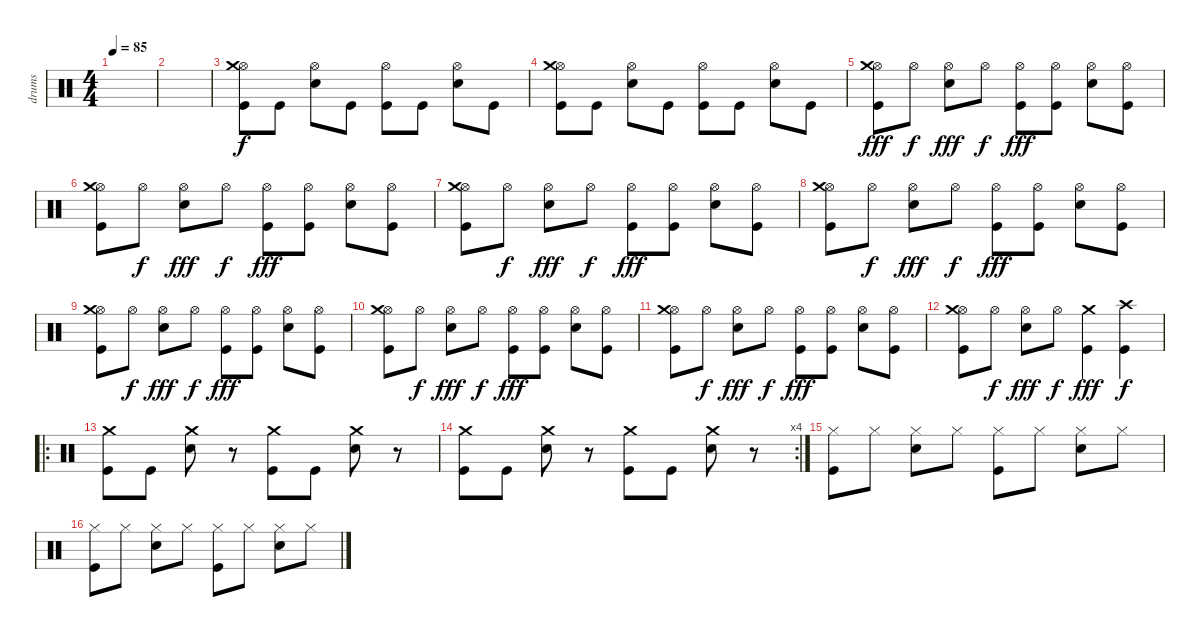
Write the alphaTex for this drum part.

\track ("drums" "drums") {instrument percussion}
\staff {score}
\articulation defaults
\ts (4 4)
\tempo 85
\clef neutral
\ks c
|
|
("Hi-Hat (open)" "Kick (hit)" "Crash medium (hit)").8 "Kick (hit)".8 ("Hi-Hat (open)" "Snare (hit) 2").8 "Kick (hit)".8 ("Hi-Hat (open)" "Kick (hit)").8 "Kick (hit)".8 ("Hi-Hat (open)" "Snare (hit) 2").8 "Kick (hit)".8 |
("Hi-Hat (open)" "Kick (hit)" "Crash medium (hit)").8 "Kick (hit)".8 ("Hi-Hat (open)" "Snare (hit) 2").8 "Kick (hit)".8 ("Hi-Hat (open)" "Kick (hit)").8 "Kick (hit)".8 ("Hi-Hat (open)" "Snare (hit) 2").8 "Kick (hit)".8 |
("Hi-Hat (open)" "Kick (hit)" "Crash medium (hit)").8{dy fff} "Hi-Hat (open)".8{dy f} ("Hi-Hat (open)" "Snare (hit) 2").8{dy fff} "Hi-Hat (open)".8{dy f} ("Hi-Hat (open)" "Kick (hit)").8{dy fff} ("Hi-Hat (open)" "Kick (hit)").8 ("Hi-Hat (open)" "Snare (hit) 2").8 ("Hi-Hat (open)" "Kick (hit)").8 |
("Hi-Hat (open)" "Kick (hit)" "Crash medium (hit)").8 "Hi-Hat (open)".8{dy f} ("Hi-Hat (open)" "Snare (hit) 2").8{dy fff} "Hi-Hat (open)".8{dy f} ("Hi-Hat (open)" "Kick (hit)").8{dy fff} ("Hi-Hat (open)" "Kick (hit)").8 ("Hi-Hat (open)" "Snare (hit) 2").8 ("Hi-Hat (open)" "Kick (hit)").8 |
("Hi-Hat (open)" "Kick (hit)" "Crash medium (hit)").8 "Hi-Hat (open)".8{dy f} ("Hi-Hat (open)" "Snare (hit) 2").8{dy fff} "Hi-Hat (open)".8{dy f} ("Hi-Hat (open)" "Kick (hit)").8{dy fff} ("Hi-Hat (open)" "Kick (hit)").8 ("Hi-Hat (open)" "Snare (hit) 2").8 ("Hi-Hat (open)" "Kick (hit)").8 |
("Hi-Hat (open)" "Kick (hit)" "Crash medium (hit)").8 "Hi-Hat (open)".8{dy f} ("Hi-Hat (open)" "Snare (hit) 2").8{dy fff} "Hi-Hat (open)".8{dy f} ("Hi-Hat (open)" "Kick (hit)").8{dy fff} ("Hi-Hat (open)" "Kick (hit)").8 ("Hi-Hat (open)" "Snare (hit) 2").8 ("Hi-Hat (open)" "Kick (hit)").8 |
("Hi-Hat (open)" "Kick (hit)" "Crash medium (hit)").8 "Hi-Hat (open)".8{dy f} ("Hi-Hat (open)" "Snare (hit) 2").8{dy fff} "Hi-Hat (open)".8{dy f} ("Hi-Hat (open)" "Kick (hit)").8{dy fff} ("Hi-Hat (open)" "Kick (hit)").8 ("Hi-Hat (open)" "Snare (hit) 2").8 ("Hi-Hat (open)" "Kick (hit)").8 |
("Hi-Hat (open)" "Kick (hit)" "Crash medium (hit)").8 "Hi-Hat (open)".8{dy f} ("Hi-Hat (open)" "Snare (hit) 2").8{dy fff} "Hi-Hat (open)".8{dy f} ("Hi-Hat (open)" "Kick (hit)").8{dy fff} ("Hi-Hat (open)" "Kick (hit)").8 ("Hi-Hat (open)" "Snare (hit) 2").8 ("Hi-Hat (open)" "Kick (hit)").8 |
("Hi-Hat (open)" "Kick (hit)" "Crash medium (hit)").8 "Hi-Hat (open)".8{dy f} ("Hi-Hat (open)" "Snare (hit) 2").8{dy fff} "Hi-Hat (open)".8{dy f} ("Hi-Hat (open)" "Kick (hit)").8{dy fff} ("Hi-Hat (open)" "Kick (hit)").8 ("Hi-Hat (open)" "Snare (hit) 2").8 ("Hi-Hat (open)" "Kick (hit)").8 |
("Hi-Hat (open)" "Kick (hit)" "Crash medium (hit)").8 "Hi-Hat (open)".8{dy f} ("Hi-Hat (open)" "Snare (hit) 2").8{dy fff} "Hi-Hat (open)".8{dy f} ("Crash medium (hit)" "Kick (hit)").4{dy fff} ("Crash high (hit)" "Kick (hit)").4{dy f} |
\ro
("Crash medium (hit)" "Kick (hit)").8 "Kick (hit)".8 ("Crash medium (hit)" "Snare (hit) 2").8 r.8 ("Crash medium (hit)" "Kick (hit)").8 "Kick (hit)".8 ("Crash medium (hit)" "Snare (hit) 2").8 r.8 |
\rc 4
("Crash medium (hit)" "Kick (hit)").8 "Kick (hit)".8 ("Crash medium (hit)" "Snare (hit) 2").8 r.8 ("Crash medium (hit)" "Kick (hit)").8 "Kick (hit)".8 ("Crash medium (hit)" "Snare (hit) 2").8 r.8 |
("Hi-Hat (closed)" "Kick (hit)").8 "Hi-Hat (closed)".8 ("Hi-Hat (closed)" "Snare (hit) 2").8 "Hi-Hat (closed)".8 ("Hi-Hat (closed)" "Kick (hit)").8 "Hi-Hat (closed)".8 ("Hi-Hat (closed)" "Snare (hit) 2").8 "Hi-Hat (closed)".8 |
("Hi-Hat (closed)" "Kick (hit)").8 "Hi-Hat (closed)".8 ("Hi-Hat (closed)" "Snare (hit) 2").8 "Hi-Hat (closed)".8 ("Hi-Hat (closed)" "Kick (hit)").8 "Hi-Hat (closed)".8 ("Hi-Hat (closed)" "Snare (hit) 2").8 "Hi-Hat (closed)".8
